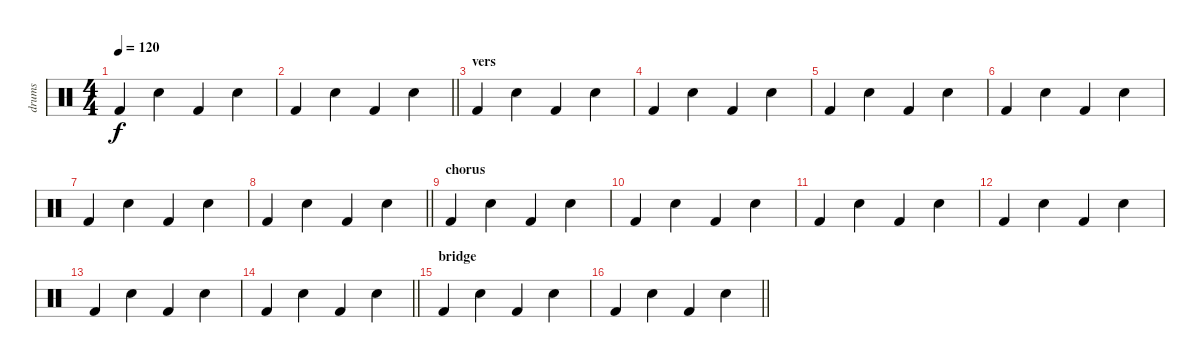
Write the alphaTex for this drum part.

\track ("drums" "drums") {instrument percussion}
\staff {score}
\articulation defaults
\ts (4 4)
\tempo 120
\clef neutral
\ks c "Kick (hit) 2".4{dy f} "Snare (hit) 2".4 "Kick (hit) 2".4 "Snare (hit) 2".4
|
\barLineRight lightlight "Kick (hit) 2".4 "Snare (hit) 2".4 "Kick (hit) 2".4 "Snare (hit) 2".4
|
\section ("" "vers")
"Kick (hit) 2".4 "Snare (hit) 2".4 "Kick (hit) 2".4 "Snare (hit) 2".4 |
"Kick (hit) 2".4 "Snare (hit) 2".4 "Kick (hit) 2".4 "Snare (hit) 2".4 |
"Kick (hit) 2".4 "Snare (hit) 2".4 "Kick (hit) 2".4 "Snare (hit) 2".4 |
"Kick (hit) 2".4 "Snare (hit) 2".4 "Kick (hit) 2".4 "Snare (hit) 2".4 |
"Kick (hit) 2".4 "Snare (hit) 2".4 "Kick (hit) 2".4 "Snare (hit) 2".4 |
\barLineRight lightlight "Kick (hit) 2".4 "Snare (hit) 2".4 "Kick (hit) 2".4 "Snare (hit) 2".4
|
\section ("" "chorus")
"Kick (hit) 2".4 "Snare (hit) 2".4 "Kick (hit) 2".4 "Snare (hit) 2".4 |
"Kick (hit) 2".4 "Snare (hit) 2".4 "Kick (hit) 2".4 "Snare (hit) 2".4 |
"Kick (hit) 2".4 "Snare (hit) 2".4 "Kick (hit) 2".4 "Snare (hit) 2".4 |
"Kick (hit) 2".4 "Snare (hit) 2".4 "Kick (hit) 2".4 "Snare (hit) 2".4 |
"Kick (hit) 2".4 "Snare (hit) 2".4 "Kick (hit) 2".4 "Snare (hit) 2".4 |
\barLineRight lightlight "Kick (hit) 2".4 "Snare (hit) 2".4 "Kick (hit) 2".4 "Snare (hit) 2".4
|
\section ("" "bridge")
"Kick (hit) 2".4 "Snare (hit) 2".4 "Kick (hit) 2".4 "Snare (hit) 2".4 |
\barLineRight lightlight "Kick (hit) 2".4 "Snare (hit) 2".4 "Kick (hit) 2".4 "Snare (hit) 2".4
